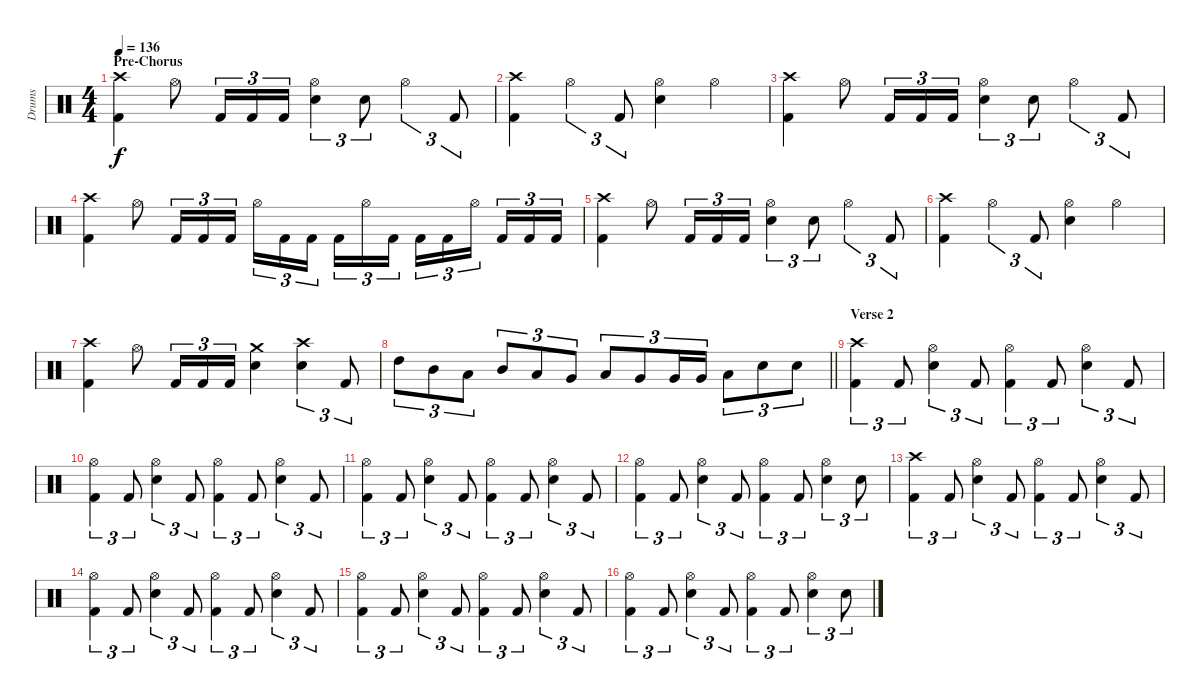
\track ("Drums" "Drums") {instrument percussion}
\staff {score}
\articulation defaults
\ts (4 4)
\section ("" "Pre-Chorus")
\tempo 136
\clef neutral
\ks c
("Crash high (hit)" "Kick (hit) 2").4{dy f} "Hi-Hat (open)".8 "Kick (hit) 2".16{tu (3 2)} "Kick (hit) 2".16{tu (3 2)} "Kick (hit) 2".16{tu (3 2)} ("Hi-Hat (open)" "Electric Snare (hit)").4{tu (3 2)} "Electric Snare (hit)".8{tu (3 2)} "Hi-Hat (open)".4{tu (3 2)} "Kick (hit) 2".8{tu (3 2)} |
("Crash high (hit)" "Kick (hit) 2").4 "Hi-Hat (open)".4{tu (3 2)} "Kick (hit) 2".8{tu (3 2)} ("Hi-Hat (open)" "Electric Snare (hit)").4 "Hi-Hat (open)".4 |
("Crash high (hit)" "Kick (hit) 2").4 "Hi-Hat (open)".8 "Kick (hit) 2".16{tu (3 2)} "Kick (hit) 2".16{tu (3 2)} "Kick (hit) 2".16{tu (3 2)} ("Hi-Hat (open)" "Electric Snare (hit)").4{tu (3 2)} "Electric Snare (hit)".8{tu (3 2)} "Hi-Hat (open)".4{tu (3 2)} "Kick (hit) 2".8{tu (3 2)} |
("Crash high (hit)" "Kick (hit) 2").4 "Hi-Hat (open)".8 "Kick (hit) 2".16{tu (3 2)} "Kick (hit) 2".16{tu (3 2)} "Kick (hit) 2".16{tu (3 2)} "Hi-Hat (open)".16{tu (3 2)} "Kick (hit) 2".16{tu (3 2)} "Kick (hit) 2".16{tu (3 2) beam splitsecondary} "Kick (hit) 2".16{tu (3 2)} "Hi-Hat (open)".16{tu (3 2)} "Kick (hit) 2".16{tu (3 2)} "Kick (hit) 2".16{tu (3 2)} "Kick (hit) 2".16{tu (3 2)} "Hi-Hat (open)".16{tu (3 2) beam splitsecondary} "Kick (hit) 2".16{tu (3 2)} "Kick (hit) 2".16{tu (3 2)} "Kick (hit) 2".16{tu (3 2)} |
("Crash high (hit)" "Kick (hit) 2").4 "Hi-Hat (open)".8 "Kick (hit) 2".16{tu (3 2)} "Kick (hit) 2".16{tu (3 2)} "Kick (hit) 2".16{tu (3 2)} ("Hi-Hat (open)" "Electric Snare (hit)").4{tu (3 2)} "Electric Snare (hit)".8{tu (3 2)} "Hi-Hat (open)".4{tu (3 2)} "Kick (hit) 2".8{tu (3 2)} |
("Crash high (hit)" "Kick (hit) 2").4 "Hi-Hat (open)".4{tu (3 2)} "Kick (hit) 2".8{tu (3 2)} ("Hi-Hat (open)" "Electric Snare (hit)").4 "Hi-Hat (open)".4 |
("Crash high (hit)" "Kick (hit) 2").4 "Hi-Hat (open)".8 "Kick (hit) 2".16{tu (3 2)} "Kick (hit) 2".16{tu (3 2)} "Kick (hit) 2".16{tu (3 2)} ("Crash medium (hit)" "Electric Snare (hit)").4 ("Crash high (hit)" "Electric Snare (hit)").4{tu (3 2)} "Kick (hit) 2".8{tu (3 2)} |
\barLineRight lightlight "High Tom (hit)".8{tu (3 2)} "Mid Tom (hit)".8{tu (3 2)} "Low Tom (hit)".8{tu (3 2)} "Mid Tom (hit)".8{tu (3 2)} "Low Tom (hit)".8{tu (3 2)} "Very Low Tom (hit)".8{tu (3 2)} "Low Tom (hit)".8{tu (3 2)} "Very Low Tom (hit)".8{tu (3 2)} "Very Low Tom (hit)".16{tu (3 2)} "Very Low Tom (hit)".16{tu (3 2)} "Low Tom (hit)".8{tu (3 2)} "Electric Snare (hit)".8{tu (3 2)} "Electric Snare (hit)".8{tu (3 2)}
|
\section ("" "Verse 2")
("Crash high (hit)" "Kick (hit) 2").4{tu (3 2)} "Kick (hit) 2".8{tu (3 2)} ("Hi-Hat (open)" "Electric Snare (hit)").4{tu (3 2)} "Kick (hit) 2".8{tu (3 2)} ("Hi-Hat (open)" "Kick (hit) 2").4{tu (3 2)} "Kick (hit) 2".8{tu (3 2)} ("Hi-Hat (open)" "Electric Snare (hit)").4{tu (3 2)} "Kick (hit) 2".8{tu (3 2)} |
("Hi-Hat (open)" "Kick (hit) 2").4{tu (3 2)} "Kick (hit) 2".8{tu (3 2)} ("Hi-Hat (open)" "Electric Snare (hit)").4{tu (3 2)} "Kick (hit) 2".8{tu (3 2)} ("Hi-Hat (open)" "Kick (hit) 2").4{tu (3 2)} "Kick (hit) 2".8{tu (3 2)} ("Hi-Hat (open)" "Electric Snare (hit)").4{tu (3 2)} "Kick (hit) 2".8{tu (3 2)} |
("Hi-Hat (open)" "Kick (hit) 2").4{tu (3 2)} "Kick (hit) 2".8{tu (3 2)} ("Hi-Hat (open)" "Electric Snare (hit)").4{tu (3 2)} "Kick (hit) 2".8{tu (3 2)} ("Hi-Hat (open)" "Kick (hit) 2").4{tu (3 2)} "Kick (hit) 2".8{tu (3 2)} ("Hi-Hat (open)" "Electric Snare (hit)").4{tu (3 2)} "Kick (hit) 2".8{tu (3 2)} |
("Hi-Hat (open)" "Kick (hit) 2").4{tu (3 2)} "Kick (hit) 2".8{tu (3 2)} ("Hi-Hat (open)" "Electric Snare (hit)").4{tu (3 2)} "Kick (hit) 2".8{tu (3 2)} ("Hi-Hat (open)" "Kick (hit) 2").4{tu (3 2)} "Kick (hit) 2".8{tu (3 2)} ("Hi-Hat (open)" "Electric Snare (hit)").4{tu (3 2)} "Electric Snare (hit)".8{tu (3 2)} |
("Crash high (hit)" "Kick (hit) 2").4{tu (3 2)} "Kick (hit) 2".8{tu (3 2)} ("Hi-Hat (open)" "Electric Snare (hit)").4{tu (3 2)} "Kick (hit) 2".8{tu (3 2)} ("Hi-Hat (open)" "Kick (hit) 2").4{tu (3 2)} "Kick (hit) 2".8{tu (3 2)} ("Hi-Hat (open)" "Electric Snare (hit)").4{tu (3 2)} "Kick (hit) 2".8{tu (3 2)} |
("Hi-Hat (open)" "Kick (hit) 2").4{tu (3 2)} "Kick (hit) 2".8{tu (3 2)} ("Hi-Hat (open)" "Electric Snare (hit)").4{tu (3 2)} "Kick (hit) 2".8{tu (3 2)} ("Hi-Hat (open)" "Kick (hit) 2").4{tu (3 2)} "Kick (hit) 2".8{tu (3 2)} ("Hi-Hat (open)" "Electric Snare (hit)").4{tu (3 2)} "Kick (hit) 2".8{tu (3 2)} |
("Hi-Hat (open)" "Kick (hit) 2").4{tu (3 2)} "Kick (hit) 2".8{tu (3 2)} ("Hi-Hat (open)" "Electric Snare (hit)").4{tu (3 2)} "Kick (hit) 2".8{tu (3 2)} ("Hi-Hat (open)" "Kick (hit) 2").4{tu (3 2)} "Kick (hit) 2".8{tu (3 2)} ("Hi-Hat (open)" "Electric Snare (hit)").4{tu (3 2)} "Kick (hit) 2".8{tu (3 2)} |
("Hi-Hat (open)" "Kick (hit) 2").4{tu (3 2)} "Kick (hit) 2".8{tu (3 2)} ("Hi-Hat (open)" "Electric Snare (hit)").4{tu (3 2)} "Kick (hit) 2".8{tu (3 2)} ("Hi-Hat (open)" "Kick (hit) 2").4{tu (3 2)} "Kick (hit) 2".8{tu (3 2)} ("Hi-Hat (open)" "Electric Snare (hit)").4{tu (3 2)} "Electric Snare (hit)".8{tu (3 2)}
